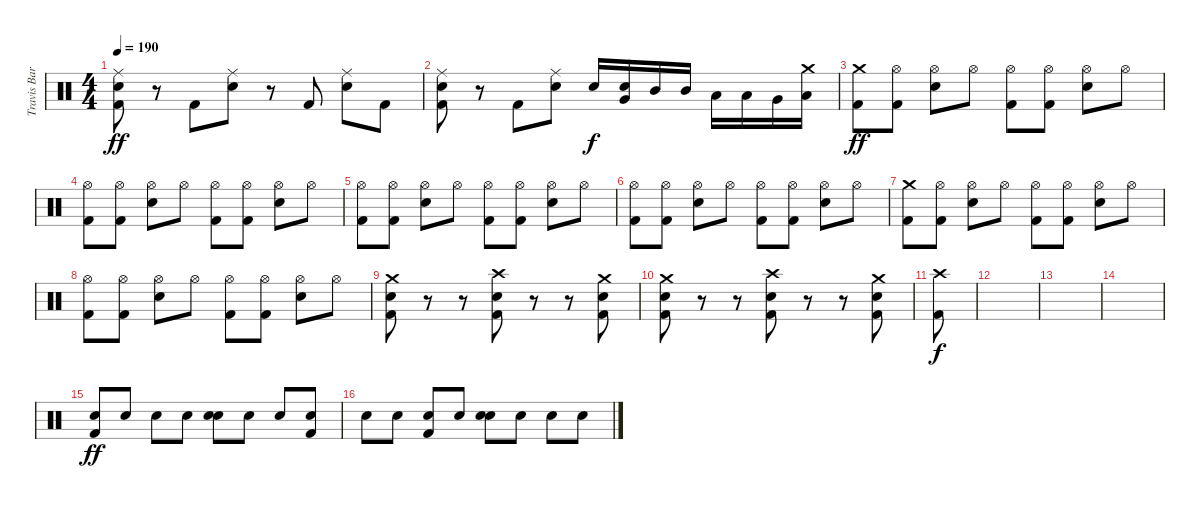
\track ("Travis Barker - Drums" "Travis Bar") {instrument percussion}
\staff {score}
\articulation defaults
\ts (4 4)
\tempo 190
\clef neutral
\ks c
("Ride (middle)" "Electric Snare (hit)" "Kick (hit) 2").8{dy ff} r.8 "Kick (hit) 2".8 ("Ride (middle)" "Electric Snare (hit)").8 r.8 "Kick (hit) 2".8 ("Ride (middle)" "Electric Snare (hit)").8 "Kick (hit) 2".8 |
("Ride (middle)" "Electric Snare (hit)" "Kick (hit) 2").8 r.8 "Kick (hit) 2".8 ("Ride (middle)" "Electric Snare (hit)").8 "Electric Snare (hit)".16{dy f} ("Very Low Tom (hit)" "Electric Snare (hit)").16 "Mid Tom (hit)".16 "Mid Tom (hit)".16 "Low Tom (hit)".16 "Low Tom (hit)".16 "Very Low Tom (hit)".16 ("Crash medium (hit)" "Low Floor Tom (hit)").16 |
("Crash medium (hit)" "Kick (hit) 2").8{dy ff} ("Hi-Hat (open)" "Kick (hit) 2").8 ("Hi-Hat (open)" "Electric Snare (hit)").8 "Hi-Hat (open)".8 ("Hi-Hat (open)" "Kick (hit) 2").8 ("Hi-Hat (open)" "Kick (hit) 2").8 ("Hi-Hat (open)" "Electric Snare (hit)").8 "Hi-Hat (open)".8 |
("Hi-Hat (open)" "Kick (hit) 2").8 ("Hi-Hat (open)" "Kick (hit) 2").8 ("Hi-Hat (open)" "Electric Snare (hit)").8 "Hi-Hat (open)".8 ("Hi-Hat (open)" "Kick (hit) 2").8 ("Hi-Hat (open)" "Kick (hit) 2").8 ("Hi-Hat (open)" "Electric Snare (hit)").8 "Hi-Hat (open)".8 |
("Hi-Hat (open)" "Kick (hit) 2").8 ("Hi-Hat (open)" "Kick (hit) 2").8 ("Hi-Hat (open)" "Electric Snare (hit)").8 "Hi-Hat (open)".8 ("Hi-Hat (open)" "Kick (hit) 2").8 ("Hi-Hat (open)" "Kick (hit) 2").8 ("Hi-Hat (open)" "Electric Snare (hit)").8 "Hi-Hat (open)".8 |
("Hi-Hat (open)" "Kick (hit) 2").8 ("Hi-Hat (open)" "Kick (hit) 2").8 ("Hi-Hat (open)" "Electric Snare (hit)").8 "Hi-Hat (open)".8 ("Hi-Hat (open)" "Kick (hit) 2").8 ("Hi-Hat (open)" "Kick (hit) 2").8 ("Hi-Hat (open)" "Electric Snare (hit)").8 "Hi-Hat (open)".8 |
("Crash medium (hit)" "Kick (hit) 2").8 ("Hi-Hat (open)" "Kick (hit) 2").8 ("Hi-Hat (open)" "Electric Snare (hit)").8 "Hi-Hat (open)".8 ("Hi-Hat (open)" "Kick (hit) 2").8 ("Hi-Hat (open)" "Kick (hit) 2").8 ("Hi-Hat (open)" "Electric Snare (hit)").8 "Hi-Hat (open)".8 |
("Hi-Hat (open)" "Kick (hit) 2").8 ("Hi-Hat (open)" "Kick (hit) 2").8 ("Hi-Hat (open)" "Electric Snare (hit)").8 "Hi-Hat (open)".8 ("Hi-Hat (open)" "Kick (hit) 2").8 ("Hi-Hat (open)" "Kick (hit) 2").8 ("Hi-Hat (open)" "Electric Snare (hit)").8 "Hi-Hat (open)".8 |
("Crash medium (hit)" "Electric Snare (hit)" "Kick (hit) 2").8 r.8 r.8 ("Crash high (hit)" "Electric Snare (hit)" "Kick (hit) 2").8 r.8 r.8 ("Crash medium (hit)" "Electric Snare (hit)" "Kick (hit) 2").8 |
("Crash medium (hit)" "Electric Snare (hit)" "Kick (hit) 2").8 r.8 r.8 ("Crash high (hit)" "Electric Snare (hit)" "Kick (hit) 2").8 r.8 r.8 ("Crash medium (hit)" "Electric Snare (hit)" "Kick (hit) 2").8 |
("Crash high (hit)" "Kick (hit) 2").8{dy f} |
|
|
|
("Snare (hit)" "Kick (hit) 2").8{dy ff} "Snare (hit)".8 "Snare (hit)".8 "Snare (hit)".8 ("Snare (hit)" "Electric Snare (hit)").8 "Snare (hit)".8 "Snare (hit)".8 ("Snare (hit)" "Kick (hit) 2").8 |
"Snare (hit)".8 "Snare (hit)".8 ("Snare (hit)" "Kick (hit) 2").8 "Snare (hit)".8 ("Snare (hit)" "Electric Snare (hit)").8 "Snare (hit)".8 "Snare (hit)".8 "Snare (hit)".8
